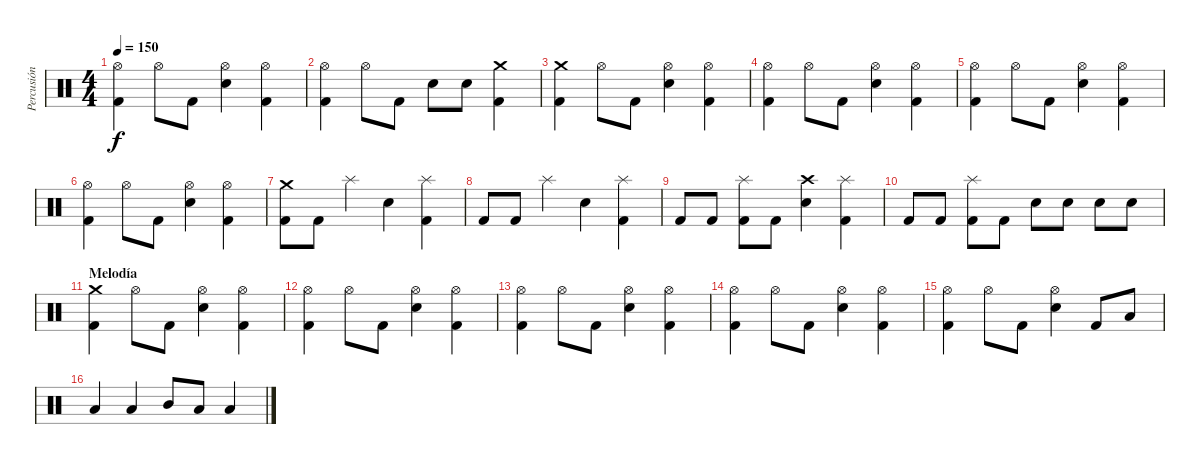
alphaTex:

\track ("Percusión" "Percusión") {instrument percussion}
\staff {score}
\articulation defaults
\ts (4 4)
\tempo 150
\clef neutral
\ks c
("Hi-Hat (open)" "Kick (hit) 2").4{dy f} "Hi-Hat (open)".8 "Kick (hit) 2".8 ("Hi-Hat (open)" "Snare (hit) 2").4 ("Hi-Hat (open)" "Kick (hit) 2").4 |
("Hi-Hat (open)" "Kick (hit) 2").4 "Hi-Hat (open)".8 "Kick (hit) 2".8 "Snare (hit) 2".8 "Snare (hit) 2".8 ("Crash medium (hit)" "Kick (hit) 2").4 |
("Crash medium (hit)" "Kick (hit) 2").4 "Hi-Hat (open)".8 "Kick (hit) 2".8 ("Hi-Hat (open)" "Snare (hit) 2").4 ("Hi-Hat (open)" "Kick (hit) 2").4 |
("Hi-Hat (open)" "Kick (hit) 2").4 "Hi-Hat (open)".8 "Kick (hit) 2".8 ("Hi-Hat (open)" "Snare (hit) 2").4 ("Hi-Hat (open)" "Kick (hit) 2").4 |
("Hi-Hat (open)" "Kick (hit) 2").4 "Hi-Hat (open)".8 "Kick (hit) 2".8 ("Hi-Hat (open)" "Snare (hit) 2").4 ("Hi-Hat (open)" "Kick (hit) 2").4 |
("Hi-Hat (open)" "Kick (hit) 2").4 "Hi-Hat (open)".8 "Kick (hit) 2".8 ("Hi-Hat (open)" "Snare (hit) 2").4 ("Hi-Hat (open)" "Kick (hit) 2").4 |
("Crash medium (hit)" "Kick (hit) 2").8 "Kick (hit) 2".8 "Splash (hit)".4 "Snare (hit) 2".4 ("Splash (hit)" "Kick (hit) 2").4 |
"Kick (hit) 2".8 "Kick (hit) 2".8 "Splash (hit)".4 "Snare (hit) 2".4 ("Splash (hit)" "Kick (hit) 2").4 |
"Kick (hit) 2".8 "Kick (hit) 2".8 ("Splash (hit)" "Kick (hit) 2").8 "Kick (hit) 2".8 ("Crash high (hit)" "Snare (hit) 2").4 ("Splash (hit)" "Kick (hit) 2").4 |
"Kick (hit) 2".8 "Kick (hit) 2".8 ("Splash (hit)" "Kick (hit) 2").8 "Kick (hit) 2".8 "Snare (hit) 2".8 "Snare (hit) 2".8 "Snare (hit) 2".8 "Snare (hit) 2".8 |
\section ("" "Melodía")
("Crash medium (hit)" "Kick (hit) 2").4 "Hi-Hat (open)".8 "Kick (hit) 2".8 ("Hi-Hat (open)" "Snare (hit) 2").4 ("Hi-Hat (open)" "Kick (hit) 2").4 |
("Hi-Hat (open)" "Kick (hit) 2").4 "Hi-Hat (open)".8 "Kick (hit) 2".8 ("Hi-Hat (open)" "Snare (hit) 2").4 ("Hi-Hat (open)" "Kick (hit) 2").4 |
("Hi-Hat (open)" "Kick (hit) 2").4 "Hi-Hat (open)".8 "Kick (hit) 2".8 ("Hi-Hat (open)" "Snare (hit) 2").4 ("Hi-Hat (open)" "Kick (hit) 2").4 |
("Hi-Hat (open)" "Kick (hit) 2").4 "Hi-Hat (open)".8 "Kick (hit) 2".8 ("Hi-Hat (open)" "Snare (hit) 2").4 ("Hi-Hat (open)" "Kick (hit) 2").4 |
("Hi-Hat (open)" "Kick (hit) 2").4 "Hi-Hat (open)".8 "Kick (hit) 2".8 ("Hi-Hat (open)" "Snare (hit) 2").4 "Kick (hit) 2".8 "Low Tom (hit)".8 |
"Low Tom (hit)".4 "Low Tom (hit)".4 "Mid Tom (hit)".8 "Low Tom (hit)".8 "Low Tom (hit)".4
